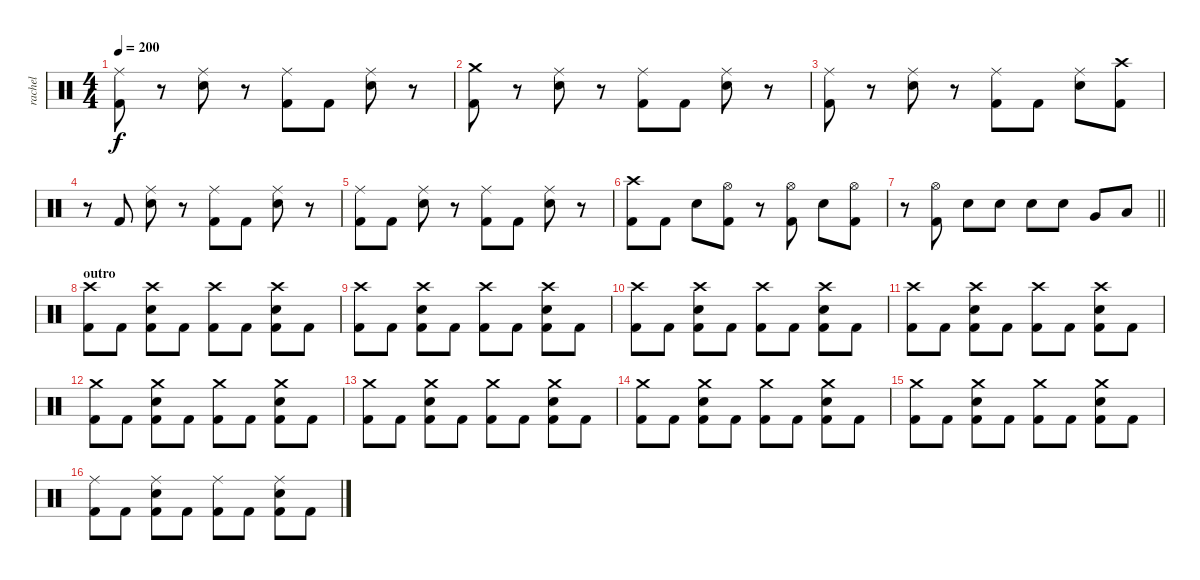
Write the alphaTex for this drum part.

\track ("rachel" "rachel") {instrument percussion}
\staff {score}
\articulation defaults
\ts (4 4)
\tempo 200
\clef neutral
\ks c
("Ride (middle)" "Kick (hit) 2").8{dy f} r.8 ("Ride (middle)" "Electric Snare (hit)").8 r.8 ("Ride (middle)" "Kick (hit) 2").8 "Kick (hit) 2".8 ("Ride (middle)" "Electric Snare (hit)").8 r.8 |
("Crash medium (hit)" "Kick (hit) 2").8 r.8 ("Ride (middle)" "Electric Snare (hit)").8 r.8 ("Ride (middle)" "Kick (hit) 2").8 "Kick (hit) 2".8 ("Ride (middle)" "Electric Snare (hit)").8 r.8 |
("Ride (middle)" "Kick (hit) 2").8 r.8 ("Ride (middle)" "Electric Snare (hit)").8 r.8 ("Ride (middle)" "Kick (hit) 2").8 "Kick (hit) 2".8 ("Ride (middle)" "Electric Snare (hit)").8 ("Crash high (hit)" "Kick (hit) 2").8 |
r.8 "Kick (hit) 2".8 ("Ride (middle)" "Electric Snare (hit)").8 r.8 ("Ride (middle)" "Kick (hit) 2").8 "Kick (hit) 2".8 ("Ride (middle)" "Electric Snare (hit)").8 r.8 |
("Ride (middle)" "Kick (hit) 2").8 "Kick (hit) 2".8 ("Ride (middle)" "Electric Snare (hit)").8 r.8 ("Ride (middle)" "Kick (hit) 2").8 "Kick (hit) 2".8 ("Ride (middle)" "Electric Snare (hit)").8 r.8 |
("Crash high (hit)" "Kick (hit) 2").8 "Kick (hit) 2".8 "Electric Snare (hit)".8 ("Hi-Hat (open)" "Kick (hit) 2").8 r.8 ("Hi-Hat (open)" "Kick (hit) 2").8 "Electric Snare (hit)".8 ("Hi-Hat (open)" "Kick (hit) 2").8 |
\barLineRight lightlight
r.8 ("Hi-Hat (open)" "Kick (hit) 2").8 "Electric Snare (hit)".8 "Electric Snare (hit)".8 "Electric Snare (hit)".8 "Electric Snare (hit)".8 "Very Low Tom (hit)".8 "Low Floor Tom (hit)".8 |
\section ("" "outro")
("Crash high (hit)" "Kick (hit) 2").8 "Kick (hit) 2".8 ("Crash high (hit)" "Electric Snare (hit)" "Kick (hit) 2").8 "Kick (hit) 2".8 ("Crash high (hit)" "Kick (hit) 2").8 "Kick (hit) 2".8 ("Crash high (hit)" "Electric Snare (hit)" "Kick (hit) 2").8 "Kick (hit) 2".8 |
("Crash high (hit)" "Kick (hit) 2").8 "Kick (hit) 2".8 ("Crash high (hit)" "Electric Snare (hit)" "Kick (hit) 2").8 "Kick (hit) 2".8 ("Crash high (hit)" "Kick (hit) 2").8 "Kick (hit) 2".8 ("Crash high (hit)" "Electric Snare (hit)" "Kick (hit) 2").8 "Kick (hit) 2".8 |
("Crash high (hit)" "Kick (hit) 2").8 "Kick (hit) 2".8 ("Crash high (hit)" "Electric Snare (hit)" "Kick (hit) 2").8 "Kick (hit) 2".8 ("Crash high (hit)" "Kick (hit) 2").8 "Kick (hit) 2".8 ("Crash high (hit)" "Electric Snare (hit)" "Kick (hit) 2").8 "Kick (hit) 2".8 |
("Crash high (hit)" "Kick (hit) 2").8 "Kick (hit) 2".8 ("Crash high (hit)" "Electric Snare (hit)" "Kick (hit) 2").8 "Kick (hit) 2".8 ("Crash high (hit)" "Kick (hit) 2").8 "Kick (hit) 2".8 ("Crash high (hit)" "Electric Snare (hit)" "Kick (hit) 2").8 "Kick (hit) 2".8 |
("Crash medium (hit)" "Kick (hit) 2").8 "Kick (hit) 2".8 ("Crash medium (hit)" "Electric Snare (hit)" "Kick (hit) 2").8 "Kick (hit) 2".8 ("Crash medium (hit)" "Kick (hit) 2").8 "Kick (hit) 2".8 ("Crash medium (hit)" "Electric Snare (hit)" "Kick (hit) 2").8 "Kick (hit) 2".8 |
("Crash medium (hit)" "Kick (hit) 2").8 "Kick (hit) 2".8 ("Crash medium (hit)" "Electric Snare (hit)" "Kick (hit) 2").8 "Kick (hit) 2".8 ("Crash medium (hit)" "Kick (hit) 2").8 "Kick (hit) 2".8 ("Crash medium (hit)" "Electric Snare (hit)" "Kick (hit) 2").8 "Kick (hit) 2".8 |
("Crash medium (hit)" "Kick (hit) 2").8 "Kick (hit) 2".8 ("Crash medium (hit)" "Electric Snare (hit)" "Kick (hit) 2").8 "Kick (hit) 2".8 ("Crash medium (hit)" "Kick (hit) 2").8 "Kick (hit) 2".8 ("Crash medium (hit)" "Electric Snare (hit)" "Kick (hit) 2").8 "Kick (hit) 2".8 |
("Crash medium (hit)" "Kick (hit) 2").8 "Kick (hit) 2".8 ("Crash medium (hit)" "Electric Snare (hit)" "Kick (hit) 2").8 "Kick (hit) 2".8 ("Crash medium (hit)" "Kick (hit) 2").8 "Kick (hit) 2".8 ("Crash medium (hit)" "Electric Snare (hit)" "Kick (hit) 2").8 "Kick (hit) 2".8 |
("Ride (middle)" "Kick (hit) 2").8 "Kick (hit) 2".8 ("Ride (middle)" "Electric Snare (hit)" "Kick (hit) 2").8 "Kick (hit) 2".8 ("Ride (middle)" "Kick (hit) 2").8 "Kick (hit) 2".8 ("Ride (middle)" "Electric Snare (hit)" "Kick (hit) 2").8 "Kick (hit) 2".8
